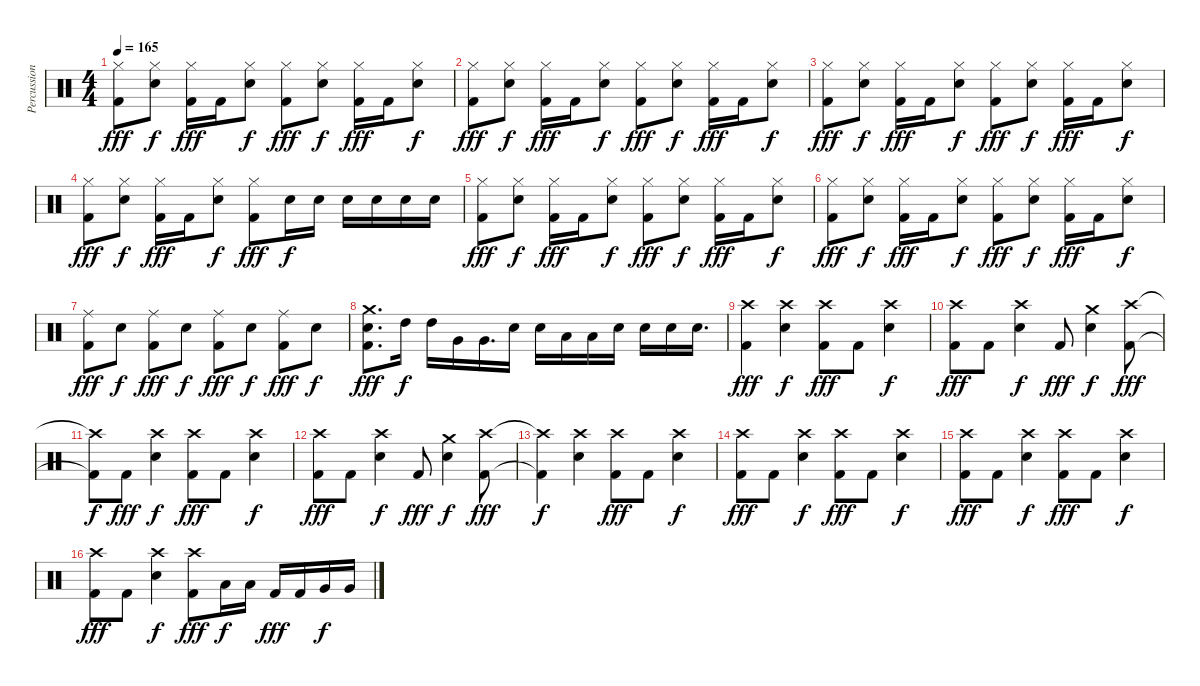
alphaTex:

\track ("Percussion" "Percussion") {instrument percussion}
\staff {score}
\articulation defaults
\ts (4 4)
\tempo 165
\clef neutral
\ks c
("Hi-Hat (closed)" "Kick (hit) 2").8{dy fff} ("Hi-Hat (closed)" "Electric Snare (hit)").8{dy f} ("Hi-Hat (closed)" "Kick (hit) 2").16{dy fff} "Kick (hit) 2".16 ("Hi-Hat (closed)" "Electric Snare (hit)").8{dy f} ("Hi-Hat (closed)" "Kick (hit) 2").8{dy fff} ("Hi-Hat (closed)" "Electric Snare (hit)").8{dy f} ("Hi-Hat (closed)" "Kick (hit) 2").16{dy fff} "Kick (hit) 2".16 ("Hi-Hat (closed)" "Electric Snare (hit)").8{dy f} |
("Hi-Hat (closed)" "Kick (hit) 2").8{dy fff} ("Hi-Hat (closed)" "Electric Snare (hit)").8{dy f} ("Hi-Hat (closed)" "Kick (hit) 2").16{dy fff} "Kick (hit) 2".16 ("Hi-Hat (closed)" "Electric Snare (hit)").8{dy f} ("Hi-Hat (closed)" "Kick (hit) 2").8{dy fff} ("Hi-Hat (closed)" "Electric Snare (hit)").8{dy f} ("Hi-Hat (closed)" "Kick (hit) 2").16{dy fff} "Kick (hit) 2".16 ("Hi-Hat (closed)" "Electric Snare (hit)").8{dy f} |
("Hi-Hat (closed)" "Kick (hit) 2").8{dy fff} ("Hi-Hat (closed)" "Electric Snare (hit)").8{dy f} ("Hi-Hat (closed)" "Kick (hit) 2").16{dy fff} "Kick (hit) 2".16 ("Hi-Hat (closed)" "Electric Snare (hit)").8{dy f} ("Hi-Hat (closed)" "Kick (hit) 2").8{dy fff} ("Hi-Hat (closed)" "Electric Snare (hit)").8{dy f} ("Hi-Hat (closed)" "Kick (hit) 2").16{dy fff} "Kick (hit) 2".16 ("Hi-Hat (closed)" "Electric Snare (hit)").8{dy f} |
("Hi-Hat (closed)" "Kick (hit) 2").8{dy fff} ("Hi-Hat (closed)" "Electric Snare (hit)").8{dy f} ("Hi-Hat (closed)" "Kick (hit) 2").16{dy fff} "Kick (hit) 2".16 ("Hi-Hat (closed)" "Electric Snare (hit)").8{dy f} ("Hi-Hat (closed)" "Kick (hit) 2").8{dy fff} "Electric Snare (hit)".16{dy f} "Electric Snare (hit)".16 "Electric Snare (hit)".16 "Electric Snare (hit)".16 "Electric Snare (hit)".16 "Electric Snare (hit)".16 |
("Hi-Hat (closed)" "Kick (hit) 2").8{dy fff} ("Hi-Hat (closed)" "Electric Snare (hit)").8{dy f} ("Hi-Hat (closed)" "Kick (hit) 2").16{dy fff} "Kick (hit) 2".16 ("Hi-Hat (closed)" "Electric Snare (hit)").8{dy f} ("Hi-Hat (closed)" "Kick (hit) 2").8{dy fff} ("Hi-Hat (closed)" "Electric Snare (hit)").8{dy f} ("Hi-Hat (closed)" "Kick (hit) 2").16{dy fff} "Kick (hit) 2".16 ("Hi-Hat (closed)" "Electric Snare (hit)").8{dy f} |
("Hi-Hat (closed)" "Kick (hit) 2").8{dy fff} ("Hi-Hat (closed)" "Electric Snare (hit)").8{dy f} ("Hi-Hat (closed)" "Kick (hit) 2").16{dy fff} "Kick (hit) 2".16 ("Hi-Hat (closed)" "Electric Snare (hit)").8{dy f} ("Hi-Hat (closed)" "Kick (hit) 2").8{dy fff} ("Hi-Hat (closed)" "Electric Snare (hit)").8{dy f} ("Hi-Hat (closed)" "Kick (hit) 2").16{dy fff} "Kick (hit) 2".16 ("Hi-Hat (closed)" "Electric Snare (hit)").8{dy f} |
("Ride (middle)" "Kick (hit) 2").8{dy fff} "Electric Snare (hit)".8{dy f} ("Ride (middle)" "Kick (hit) 2").8{dy fff} "Electric Snare (hit)".8{dy f} ("Ride (middle)" "Kick (hit) 2").8{dy fff} "Electric Snare (hit)".8{dy f} ("Ride (middle)" "Kick (hit) 2").8{dy fff} "Electric Snare (hit)".8{dy f} |
("Crash medium (hit)" "Electric Snare (hit)" "Kick (hit) 2").8{d dy fff} "High Tom (hit)".16{dy f} "High Tom (hit)".16 "Very Low Tom (hit)".16 "Very Low Tom (hit)".16{d} "Electric Snare (hit)".16 "Electric Snare (hit)".16 "Low Tom (hit)".16 "Low Tom (hit)".16 "Electric Snare (hit)".16 "Electric Snare (hit)".16 "Electric Snare (hit)".16 "Electric Snare (hit)".16{d} |
("Crash high (hit)" "Kick (hit) 2").4{dy fff} ("Crash high (hit)" "Electric Snare (hit)").4{dy f} ("Crash high (hit)" "Kick (hit) 2").8{dy fff} "Kick (hit) 2".8 ("Crash high (hit)" "Electric Snare (hit)").4{dy f} |
("Crash high (hit)" "Kick (hit) 2").8{dy fff} "Kick (hit) 2".8 ("Crash high (hit)" "Electric Snare (hit)").4{dy f} "Kick (hit) 2".8{dy fff} ("Crash medium (hit)" "Electric Snare (hit)").4{dy f} ("Crash high (hit)" "Kick (hit) 2").8{dy fff} |
("Crash high (hit)"{t} "Kick (hit) 2"{t}).8{dy f} "Kick (hit) 2".8{dy fff} ("Crash high (hit)" "Electric Snare (hit)").4{dy f} ("Crash high (hit)" "Kick (hit) 2").8{dy fff} "Kick (hit) 2".8 ("Crash high (hit)" "Electric Snare (hit)").4{dy f} |
("Crash high (hit)" "Kick (hit) 2").8{dy fff} "Kick (hit) 2".8 ("Crash high (hit)" "Electric Snare (hit)").4{dy f} "Kick (hit) 2".8{dy fff} ("Crash medium (hit)" "Electric Snare (hit)").4{dy f} ("Crash high (hit)" "Kick (hit) 2").8{dy fff} |
("Crash high (hit)"{t} "Kick (hit) 2"{t}).4{dy f} ("Electric Snare (hit)" "Crash high (hit)").4 ("Crash high (hit)" "Kick (hit) 2").8{dy fff} "Kick (hit) 2".8 ("Electric Snare (hit)" "Crash high (hit)").4{dy f} |
("Crash high (hit)" "Kick (hit) 2").8{dy fff} "Kick (hit) 2".8 ("Electric Snare (hit)" "Crash high (hit)").4{dy f} ("Crash high (hit)" "Kick (hit) 2").8{dy fff} "Kick (hit) 2".8 ("Electric Snare (hit)" "Crash high (hit)").4{dy f} |
("Crash high (hit)" "Kick (hit) 2").8{dy fff} "Kick (hit) 2".8 ("Electric Snare (hit)" "Crash high (hit)").4{dy f} ("Crash high (hit)" "Kick (hit) 2").8{dy fff} "Kick (hit) 2".8 ("Electric Snare (hit)" "Crash high (hit)").4{dy f} |
("Crash high (hit)" "Kick (hit) 2").8{dy fff} "Kick (hit) 2".8 ("Electric Snare (hit)" "Crash high (hit)").4{dy f} ("Crash high (hit)" "Kick (hit) 2").8{dy fff} "Low Tom (hit)".16{dy f} "Low Tom (hit)".16 "Kick (hit) 2".16{dy fff} "Kick (hit) 2".16 "Very Low Tom (hit)".16{dy f} "Very Low Tom (hit)".16
